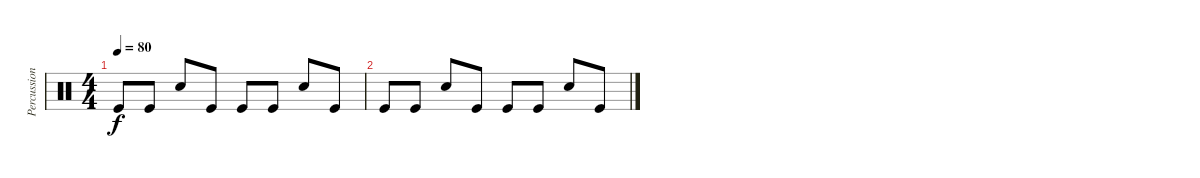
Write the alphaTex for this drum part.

\track ("Percussions" "Percussion") {instrument percussion}
\staff {score}
\articulation defaults
\ts (4 4)
\tempo 80
\clef neutral
\ks c "Kick (hit)".8{dy f} "Kick (hit)".8 "Electric Snare (hit)".8 "Kick (hit)".8 "Kick (hit)".8 "Kick (hit)".8 "Electric Snare (hit)".8 "Kick (hit)".8
|
"Kick (hit)".8 "Kick (hit)".8 "Electric Snare (hit)".8 "Kick (hit)".8 "Kick (hit)".8 "Kick (hit)".8 "Electric Snare (hit)".8 "Kick (hit)".8
